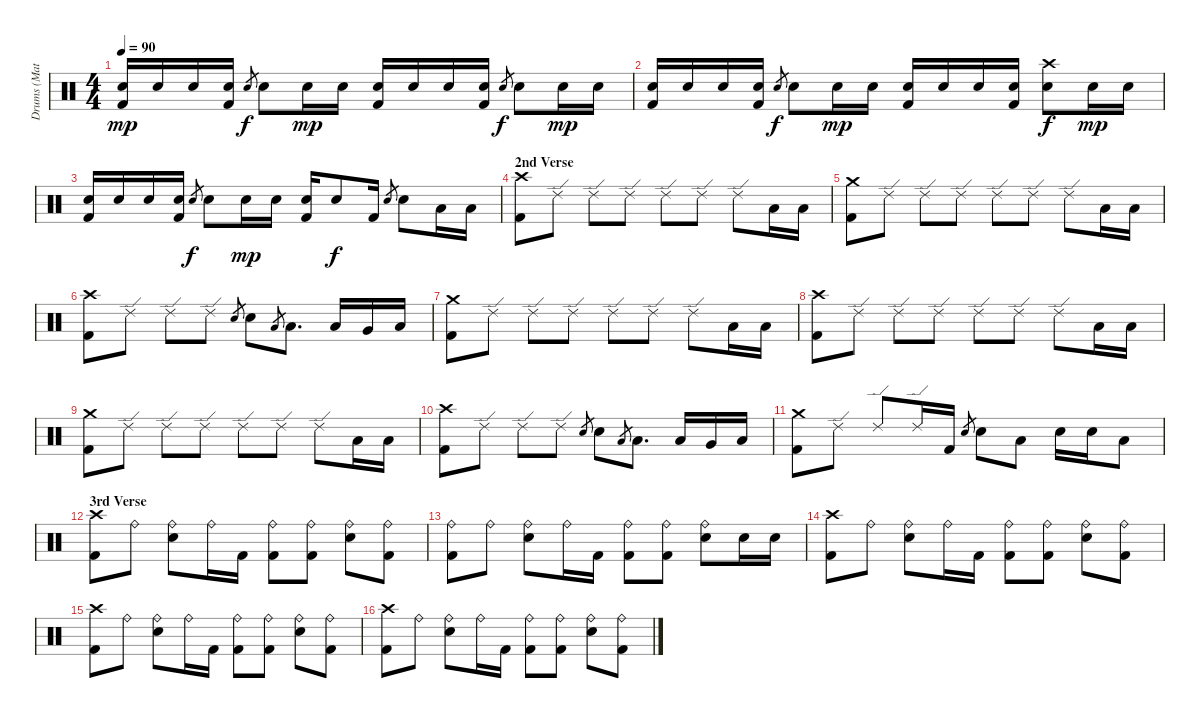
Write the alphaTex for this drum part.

\track ("Drums (Matt)" "Drums (Mat") {instrument percussion}
\staff {score}
\articulation defaults
\ts (4 4)
\tempo 90
\clef neutral
\ks c
("Snare (hit) 2" "Kick (hit) 2").16{dy mp} "Snare (hit) 2".16 "Snare (hit) 2".16 ("Snare (hit) 2" "Kick (hit) 2").16 "Snare (hit) 2".8{gr dy f} "Snare (hit) 2".8 "Snare (hit) 2".16{dy mp} "Snare (hit) 2".16 ("Snare (hit) 2" "Kick (hit) 2").16 "Snare (hit) 2".16 "Snare (hit) 2".16 ("Snare (hit) 2" "Kick (hit) 2").16 "Snare (hit) 2".8{gr dy f} "Snare (hit) 2".8 "Snare (hit) 2".16{dy mp} "Snare (hit) 2".16 |
("Snare (hit) 2" "Kick (hit) 2").16 "Snare (hit) 2".16 "Snare (hit) 2".16 ("Snare (hit) 2" "Kick (hit) 2").16 "Snare (hit) 2".8{gr dy f} "Snare (hit) 2".8 "Snare (hit) 2".16{dy mp} "Snare (hit) 2".16 ("Snare (hit) 2" "Kick (hit) 2").16 "Snare (hit) 2".16 "Snare (hit) 2".16 ("Snare (hit) 2" "Kick (hit) 2").16 ("Crash high (hit)" "Snare (hit) 2").8{dy f} "Snare (hit) 2".16{dy mp} "Snare (hit) 2".16 |
("Snare (hit) 2" "Kick (hit) 2").16 "Snare (hit) 2".16 "Snare (hit) 2".16 ("Snare (hit) 2" "Kick (hit) 2").16 "Snare (hit) 2".8{gr dy f} "Snare (hit) 2".8 "Snare (hit) 2".16{dy mp} "Snare (hit) 2".16 ("Snare (hit) 2" "Kick (hit) 2").16 "Snare (hit) 2".8{dy f} "Kick (hit) 2".16 "Snare (hit) 2".8{gr} "Snare (hit) 2".8 "Low Tom (hit)".16 "Low Tom (hit)".16 |
\section ("" "2nd Verse")
("Crash high (hit)" "Kick (hit) 2").8 "Ride (edge) 2".8 "Ride (edge) 2".8 "Ride (edge) 2".8 "Ride (edge) 2".8 "Ride (edge) 2".8 "Ride (edge) 2".8 "Low Tom (hit)".16 "Low Tom (hit)".16 |
("Crash medium (hit)" "Kick (hit) 2").8 "Ride (edge) 2".8 "Ride (edge) 2".8 "Ride (edge) 2".8 "Ride (edge) 2".8 "Ride (edge) 2".8 "Ride (edge) 2".8 "Low Tom (hit)".16 "Low Tom (hit)".16 |
("Crash high (hit)" "Kick (hit) 2").8 "Ride (edge) 2".8 "Ride (edge) 2".8 "Ride (edge) 2".8 "Snare (hit) 2".8{gr} "Snare (hit) 2".8 "Low Tom (hit)".8{gr} "Low Tom (hit)".8{d} "Low Tom (hit)".16 "Very Low Tom (hit)".16 "Low Floor Tom (hit)".16 |
("Crash medium (hit)" "Kick (hit) 2").8 "Ride (edge) 2".8 "Ride (edge) 2".8 "Ride (edge) 2".8 "Ride (edge) 2".8 "Ride (edge) 2".8 "Ride (edge) 2".8 "Low Tom (hit)".16 "Low Tom (hit)".16 |
("Crash high (hit)" "Kick (hit) 2").8 "Ride (edge) 2".8 "Ride (edge) 2".8 "Ride (edge) 2".8 "Ride (edge) 2".8 "Ride (edge) 2".8 "Ride (edge) 2".8 "Low Tom (hit)".16 "Low Tom (hit)".16 |
("Crash medium (hit)" "Kick (hit) 2").8 "Ride (edge) 2".8 "Ride (edge) 2".8 "Ride (edge) 2".8 "Ride (edge) 2".8 "Ride (edge) 2".8 "Ride (edge) 2".8 "Low Tom (hit)".16 "Low Tom (hit)".16 |
("Crash high (hit)" "Kick (hit) 2").8 "Ride (edge) 2".8 "Ride (edge) 2".8 "Ride (edge) 2".8 "Snare (hit) 2".8{gr} "Snare (hit) 2".8 "Low Tom (hit)".8{gr} "Low Tom (hit)".8{d} "Low Tom (hit)".16 "Very Low Tom (hit)".16 "Low Floor Tom (hit)".16 |
("Crash medium (hit)" "Kick (hit) 2").8 "Ride (edge) 2".8 "Ride (edge) 2".8 "Ride (edge) 2".16 "Kick (hit) 2".16 "Snare (hit) 2".8{gr} "Snare (hit) 2".8 "Low Tom (hit)".8 "Snare (hit) 2".16 "Snare (hit) 2".16 "Low Tom (hit)".8 |
\section ("" "3rd Verse")
("Crash high (hit)" "Kick (hit) 2").8 "Ride (bell)".8 ("Ride (bell)" "Snare (hit) 2").8 "Ride (bell)".16 "Kick (hit) 2".16 ("Ride (bell)" "Kick (hit) 2").8 ("Ride (bell)" "Kick (hit) 2").8 ("Ride (bell)" "Snare (hit) 2").8 ("Ride (bell)" "Kick (hit) 2").8 |
("Ride (bell)" "Kick (hit) 2").8 "Ride (bell)".8 ("Ride (bell)" "Snare (hit) 2").8 "Ride (bell)".16 "Kick (hit) 2".16 ("Ride (bell)" "Kick (hit) 2").8 ("Ride (bell)" "Kick (hit) 2").8 ("Ride (bell)" "Snare (hit) 2").8 "Snare (hit) 2".16 "Snare (hit) 2".16 |
("Crash high (hit)" "Kick (hit) 2").8 "Ride (bell)".8 ("Ride (bell)" "Snare (hit) 2").8 "Ride (bell)".16 "Kick (hit) 2".16 ("Ride (bell)" "Kick (hit) 2").8 ("Ride (bell)" "Kick (hit) 2").8 ("Ride (bell)" "Snare (hit) 2").8 ("Ride (bell)" "Kick (hit) 2").8 |
("Crash high (hit)" "Kick (hit) 2").8 "Ride (bell)".8 ("Ride (bell)" "Snare (hit) 2").8 "Ride (bell)".16 "Kick (hit) 2".16 ("Ride (bell)" "Kick (hit) 2").8 ("Ride (bell)" "Kick (hit) 2").8 ("Ride (bell)" "Snare (hit) 2").8 ("Ride (bell)" "Kick (hit) 2").8 |
("Crash high (hit)" "Kick (hit) 2").8 "Ride (bell)".8 ("Ride (bell)" "Snare (hit) 2").8 "Ride (bell)".16 "Kick (hit) 2".16 ("Ride (bell)" "Kick (hit) 2").8 ("Ride (bell)" "Kick (hit) 2").8 ("Ride (bell)" "Snare (hit) 2").8 ("Ride (bell)" "Kick (hit) 2").8
